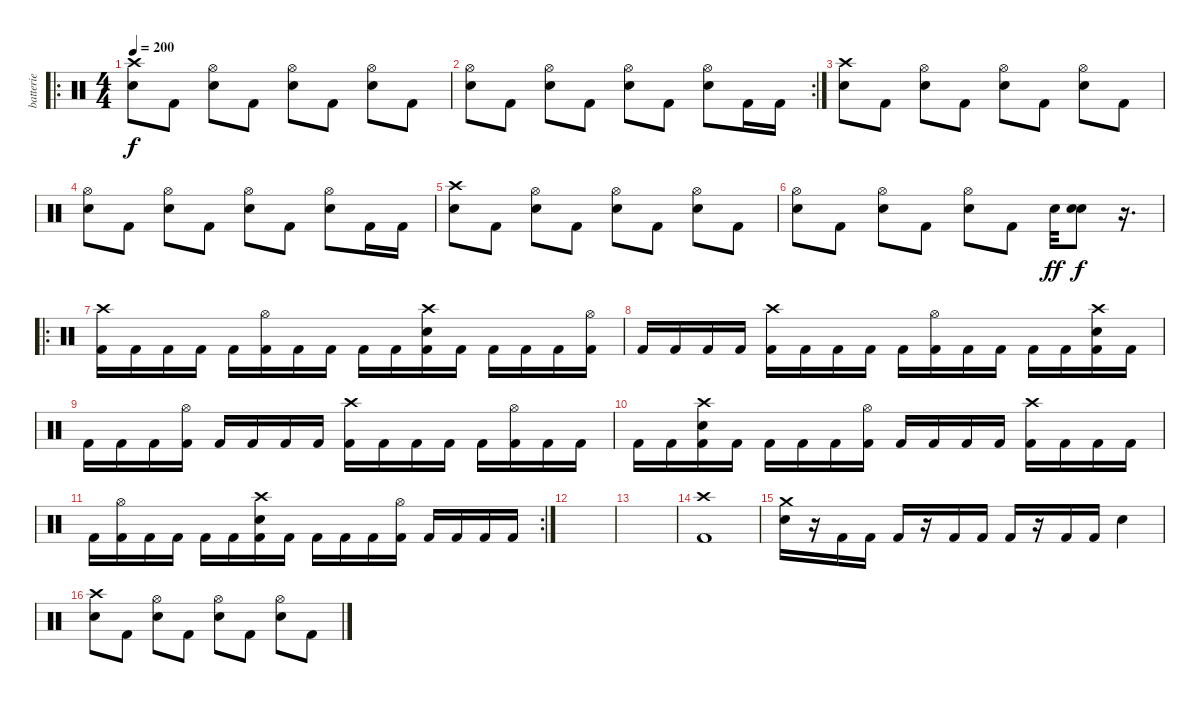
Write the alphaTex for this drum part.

\track ("batterie" "batterie") {instrument percussion}
\staff {score}
\articulation defaults
\ro
\ts (4 4)
\tempo 200
\clef neutral
\ks c
("Crash high (hit)" "Electric Snare (hit)").8{dy f} "Kick (hit) 2".8 ("Hi-Hat (open)" "Electric Snare (hit)").8 "Kick (hit) 2".8 ("Hi-Hat (open)" "Electric Snare (hit)").8 "Kick (hit) 2".8 ("Hi-Hat (open)" "Electric Snare (hit)").8 "Kick (hit) 2".8 |
\rc 2
("Hi-Hat (open)" "Electric Snare (hit)").8 "Kick (hit) 2".8 ("Hi-Hat (open)" "Electric Snare (hit)").8 "Kick (hit) 2".8 ("Hi-Hat (open)" "Electric Snare (hit)").8 "Kick (hit) 2".8 ("Hi-Hat (open)" "Electric Snare (hit)").8 "Kick (hit) 2".16 "Kick (hit) 2".16 |
("Crash high (hit)" "Electric Snare (hit)").8 "Kick (hit) 2".8 ("Hi-Hat (open)" "Electric Snare (hit)").8 "Kick (hit) 2".8 ("Hi-Hat (open)" "Electric Snare (hit)").8 "Kick (hit) 2".8 ("Hi-Hat (open)" "Electric Snare (hit)").8 "Kick (hit) 2".8 |
("Hi-Hat (open)" "Electric Snare (hit)").8 "Kick (hit) 2".8 ("Hi-Hat (open)" "Electric Snare (hit)").8 "Kick (hit) 2".8 ("Hi-Hat (open)" "Electric Snare (hit)").8 "Kick (hit) 2".8 ("Hi-Hat (open)" "Electric Snare (hit)").8 "Kick (hit) 2".16 "Kick (hit) 2".16 |
("Crash high (hit)" "Electric Snare (hit)").8 "Kick (hit) 2".8 ("Hi-Hat (open)" "Electric Snare (hit)").8 "Kick (hit) 2".8 ("Hi-Hat (open)" "Electric Snare (hit)").8 "Kick (hit) 2".8 ("Hi-Hat (open)" "Electric Snare (hit)").8 "Kick (hit) 2".8 |
("Hi-Hat (open)" "Electric Snare (hit)").8 "Kick (hit) 2".8 ("Hi-Hat (open)" "Electric Snare (hit)").8 "Kick (hit) 2".8 ("Hi-Hat (open)" "Electric Snare (hit)").8 "Kick (hit) 2".8 "Electric Snare (hit)".32{dy ff} ("Electric Snare (hit)" "Electric Snare (hit)").8{dy f} r.16{d} |
\ro
("Crash high (hit)" "Kick (hit) 2").16 "Kick (hit) 2".16 "Kick (hit) 2".16 "Kick (hit) 2".16 "Kick (hit) 2".16 ("Hi-Hat (open)" "Kick (hit) 2").16 "Kick (hit) 2".16 "Kick (hit) 2".16 "Kick (hit) 2".16 "Kick (hit) 2".16 ("Crash high (hit)" "Electric Snare (hit)" "Kick (hit) 2").16 "Kick (hit) 2".16 "Kick (hit) 2".16 "Kick (hit) 2".16 "Kick (hit) 2".16 ("Hi-Hat (open)" "Kick (hit) 2").16 |
"Kick (hit) 2".16 "Kick (hit) 2".16 "Kick (hit) 2".16 "Kick (hit) 2".16 ("Crash high (hit)" "Kick (hit) 2").16 "Kick (hit) 2".16 "Kick (hit) 2".16 "Kick (hit) 2".16 "Kick (hit) 2".16 ("Hi-Hat (open)" "Kick (hit) 2").16 "Kick (hit) 2".16 "Kick (hit) 2".16 "Kick (hit) 2".16 "Kick (hit) 2".16 ("Crash high (hit)" "Electric Snare (hit)" "Kick (hit) 2").16 "Kick (hit) 2".16 |
"Kick (hit) 2".16 "Kick (hit) 2".16 "Kick (hit) 2".16 ("Hi-Hat (open)" "Kick (hit) 2").16 "Kick (hit) 2".16 "Kick (hit) 2".16 "Kick (hit) 2".16 "Kick (hit) 2".16 ("Crash high (hit)" "Kick (hit) 2").16 "Kick (hit) 2".16 "Kick (hit) 2".16 "Kick (hit) 2".16 "Kick (hit) 2".16 ("Hi-Hat (open)" "Kick (hit) 2").16 "Kick (hit) 2".16 "Kick (hit) 2".16 |
"Kick (hit) 2".16 "Kick (hit) 2".16 ("Crash high (hit)" "Electric Snare (hit)" "Kick (hit) 2").16 "Kick (hit) 2".16 "Kick (hit) 2".16 "Kick (hit) 2".16 "Kick (hit) 2".16 ("Hi-Hat (open)" "Kick (hit) 2").16 "Kick (hit) 2".16 "Kick (hit) 2".16 "Kick (hit) 2".16 "Kick (hit) 2".16 ("Crash high (hit)" "Kick (hit) 2").16 "Kick (hit) 2".16 "Kick (hit) 2".16 "Kick (hit) 2".16 |
\rc 2 "Kick (hit) 2".16
("Hi-Hat (open)" "Kick (hit) 2").16 "Kick (hit) 2".16 "Kick (hit) 2".16 "Kick (hit) 2".16 "Kick (hit) 2".16 ("Crash high (hit)" "Electric Snare (hit)" "Kick (hit) 2").16 "Kick (hit) 2".16 "Kick (hit) 2".16 "Kick (hit) 2".16 "Kick (hit) 2".16 ("Hi-Hat (open)" "Kick (hit) 2").16 "Kick (hit) 2".16 "Kick (hit) 2".16 "Kick (hit) 2".16 "Kick (hit) 2".16 |
|
|
("Crash high (hit)" "Kick (hit) 2").1 |
("Crash medium (hit)" "Electric Snare (hit)").16 r.16 "Kick (hit) 2".16 "Kick (hit) 2".16 "Kick (hit) 2".16 r.16 "Kick (hit) 2".16 "Kick (hit) 2".16 "Kick (hit) 2".16 r.16 "Kick (hit) 2".16 "Kick (hit) 2".16 "Electric Snare (hit)".4 |
("Crash high (hit)" "Electric Snare (hit)").8 "Kick (hit) 2".8 ("Hi-Hat (open)" "Electric Snare (hit)").8 "Kick (hit) 2".8 ("Hi-Hat (open)" "Electric Snare (hit)").8 "Kick (hit) 2".8 ("Hi-Hat (open)" "Electric Snare (hit)").8 "Kick (hit) 2".8
